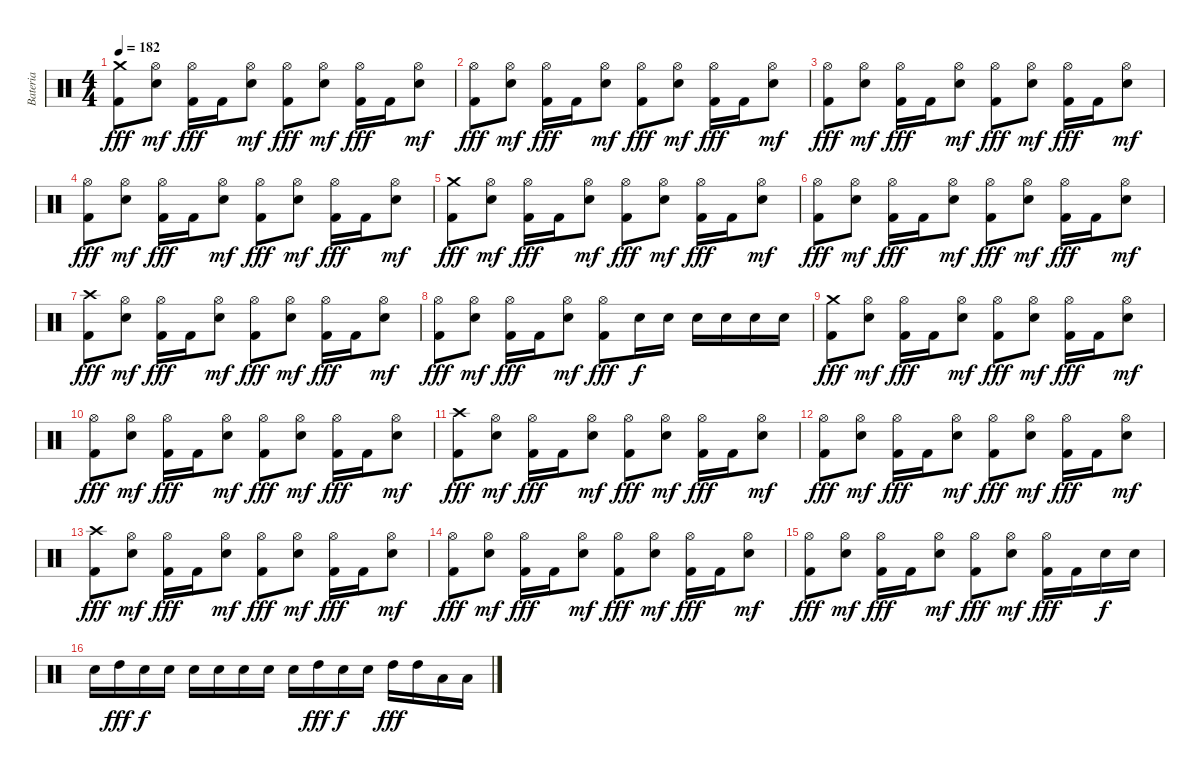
\track ("Bateria" "Bateria") {instrument percussion}
\staff {score}
\articulation defaults
\ts (4 4)
\tempo 182
\clef neutral
\ks c
("Crash medium (hit)" "Kick (hit) 2").8{dy fff} ("Hi-Hat (open)" "Electric Snare (hit)").8{dy mf} ("Hi-Hat (open)" "Kick (hit) 2").16{dy fff} "Kick (hit) 2".16 ("Hi-Hat (open)" "Electric Snare (hit)").8{dy mf} ("Hi-Hat (open)" "Kick (hit) 2").8{dy fff} ("Hi-Hat (open)" "Electric Snare (hit)").8{dy mf} ("Hi-Hat (open)" "Kick (hit) 2").16{dy fff} "Kick (hit) 2".16 ("Hi-Hat (open)" "Electric Snare (hit)").8{dy mf} |
("Hi-Hat (open)" "Kick (hit) 2").8{dy fff} ("Hi-Hat (open)" "Electric Snare (hit)").8{dy mf} ("Hi-Hat (open)" "Kick (hit) 2").16{dy fff} "Kick (hit) 2".16 ("Hi-Hat (open)" "Electric Snare (hit)").8{dy mf} ("Hi-Hat (open)" "Kick (hit) 2").8{dy fff} ("Hi-Hat (open)" "Electric Snare (hit)").8{dy mf} ("Hi-Hat (open)" "Kick (hit) 2").16{dy fff} "Kick (hit) 2".16 ("Hi-Hat (open)" "Electric Snare (hit)").8{dy mf} |
("Hi-Hat (open)" "Kick (hit) 2").8{dy fff} ("Hi-Hat (open)" "Electric Snare (hit)").8{dy mf} ("Hi-Hat (open)" "Kick (hit) 2").16{dy fff} "Kick (hit) 2".16 ("Hi-Hat (open)" "Electric Snare (hit)").8{dy mf} ("Hi-Hat (open)" "Kick (hit) 2").8{dy fff} ("Hi-Hat (open)" "Electric Snare (hit)").8{dy mf} ("Hi-Hat (open)" "Kick (hit) 2").16{dy fff} "Kick (hit) 2".16 ("Hi-Hat (open)" "Electric Snare (hit)").8{dy mf} |
("Hi-Hat (open)" "Kick (hit) 2").8{dy fff} ("Hi-Hat (open)" "Electric Snare (hit)").8{dy mf} ("Hi-Hat (open)" "Kick (hit) 2").16{dy fff} "Kick (hit) 2".16 ("Hi-Hat (open)" "Electric Snare (hit)").8{dy mf} ("Hi-Hat (open)" "Kick (hit) 2").8{dy fff} ("Hi-Hat (open)" "Electric Snare (hit)").8{dy mf} ("Hi-Hat (open)" "Kick (hit) 2").16{dy fff} "Kick (hit) 2".16 ("Hi-Hat (open)" "Electric Snare (hit)").8{dy mf} |
("Crash medium (hit)" "Kick (hit) 2").8{dy fff} ("Hi-Hat (open)" "Electric Snare (hit)").8{dy mf} ("Hi-Hat (open)" "Kick (hit) 2").16{dy fff} "Kick (hit) 2".16 ("Hi-Hat (open)" "Electric Snare (hit)").8{dy mf} ("Hi-Hat (open)" "Kick (hit) 2").8{dy fff} ("Hi-Hat (open)" "Electric Snare (hit)").8{dy mf} ("Hi-Hat (open)" "Kick (hit) 2").16{dy fff} "Kick (hit) 2".16 ("Hi-Hat (open)" "Electric Snare (hit)").8{dy mf} |
("Hi-Hat (open)" "Kick (hit) 2").8{dy fff} ("Hi-Hat (open)" "Electric Snare (hit)").8{dy mf} ("Hi-Hat (open)" "Kick (hit) 2").16{dy fff} "Kick (hit) 2".16 ("Hi-Hat (open)" "Electric Snare (hit)").8{dy mf} ("Hi-Hat (open)" "Kick (hit) 2").8{dy fff} ("Hi-Hat (open)" "Electric Snare (hit)").8{dy mf} ("Hi-Hat (open)" "Kick (hit) 2").16{dy fff} "Kick (hit) 2".16 ("Hi-Hat (open)" "Electric Snare (hit)").8{dy mf} |
("Crash high (hit)" "Kick (hit) 2").8{dy fff} ("Hi-Hat (open)" "Electric Snare (hit)").8{dy mf} ("Hi-Hat (open)" "Kick (hit) 2").16{dy fff} "Kick (hit) 2".16 ("Hi-Hat (open)" "Electric Snare (hit)").8{dy mf} ("Hi-Hat (open)" "Kick (hit) 2").8{dy fff} ("Hi-Hat (open)" "Electric Snare (hit)").8{dy mf} ("Hi-Hat (open)" "Kick (hit) 2").16{dy fff} "Kick (hit) 2".16 ("Hi-Hat (open)" "Electric Snare (hit)").8{dy mf} |
("Hi-Hat (open)" "Kick (hit) 2").8{dy fff} ("Hi-Hat (open)" "Electric Snare (hit)").8{dy mf} ("Hi-Hat (open)" "Kick (hit) 2").16{dy fff} "Kick (hit) 2".16 ("Hi-Hat (open)" "Electric Snare (hit)").8{dy mf} ("Hi-Hat (open)" "Kick (hit) 2").8{dy fff} "Electric Snare (hit)".16{dy f} "Electric Snare (hit)".16 "Electric Snare (hit)".16 "Electric Snare (hit)".16 "Electric Snare (hit)".16 "Electric Snare (hit)".16 |
("Crash medium (hit)" "Kick (hit) 2").8{dy fff} ("Hi-Hat (open)" "Electric Snare (hit)").8{dy mf} ("Hi-Hat (open)" "Kick (hit) 2").16{dy fff} "Kick (hit) 2".16 ("Hi-Hat (open)" "Electric Snare (hit)").8{dy mf} ("Hi-Hat (open)" "Kick (hit) 2").8{dy fff} ("Hi-Hat (open)" "Electric Snare (hit)").8{dy mf} ("Hi-Hat (open)" "Kick (hit) 2").16{dy fff} "Kick (hit) 2".16 ("Hi-Hat (open)" "Electric Snare (hit)").8{dy mf} |
("Hi-Hat (open)" "Kick (hit) 2").8{dy fff} ("Hi-Hat (open)" "Electric Snare (hit)").8{dy mf} ("Hi-Hat (open)" "Kick (hit) 2").16{dy fff} "Kick (hit) 2".16 ("Hi-Hat (open)" "Electric Snare (hit)").8{dy mf} ("Hi-Hat (open)" "Kick (hit) 2").8{dy fff} ("Hi-Hat (open)" "Electric Snare (hit)").8{dy mf} ("Hi-Hat (open)" "Kick (hit) 2").16{dy fff} "Kick (hit) 2".16 ("Hi-Hat (open)" "Electric Snare (hit)").8{dy mf} |
("Crash high (hit)" "Kick (hit) 2").8{dy fff} ("Hi-Hat (open)" "Electric Snare (hit)").8{dy mf} ("Hi-Hat (open)" "Kick (hit) 2").16{dy fff} "Kick (hit) 2".16 ("Hi-Hat (open)" "Electric Snare (hit)").8{dy mf} ("Hi-Hat (open)" "Kick (hit) 2").8{dy fff} ("Hi-Hat (open)" "Electric Snare (hit)").8{dy mf} ("Hi-Hat (open)" "Kick (hit) 2").16{dy fff} "Kick (hit) 2".16 ("Hi-Hat (open)" "Electric Snare (hit)").8{dy mf} |
("Hi-Hat (open)" "Kick (hit) 2").8{dy fff} ("Hi-Hat (open)" "Electric Snare (hit)").8{dy mf} ("Hi-Hat (open)" "Kick (hit) 2").16{dy fff} "Kick (hit) 2".16 ("Hi-Hat (open)" "Electric Snare (hit)").8{dy mf} ("Hi-Hat (open)" "Kick (hit) 2").8{dy fff} ("Hi-Hat (open)" "Electric Snare (hit)").8{dy mf} ("Hi-Hat (open)" "Kick (hit) 2").16{dy fff} "Kick (hit) 2".16 ("Hi-Hat (open)" "Electric Snare (hit)").8{dy mf} |
("Crash high (hit)" "Kick (hit) 2").8{dy fff} ("Hi-Hat (open)" "Electric Snare (hit)").8{dy mf} ("Hi-Hat (open)" "Kick (hit) 2").16{dy fff} "Kick (hit) 2".16 ("Hi-Hat (open)" "Electric Snare (hit)").8{dy mf} ("Hi-Hat (open)" "Kick (hit) 2").8{dy fff} ("Hi-Hat (open)" "Electric Snare (hit)").8{dy mf} ("Hi-Hat (open)" "Kick (hit) 2").16{dy fff} "Kick (hit) 2".16 ("Hi-Hat (open)" "Electric Snare (hit)").8{dy mf} |
("Hi-Hat (open)" "Kick (hit) 2").8{dy fff} ("Hi-Hat (open)" "Electric Snare (hit)").8{dy mf} ("Hi-Hat (open)" "Kick (hit) 2").16{dy fff} "Kick (hit) 2".16 ("Hi-Hat (open)" "Electric Snare (hit)").8{dy mf} ("Hi-Hat (open)" "Kick (hit) 2").8{dy fff} ("Hi-Hat (open)" "Electric Snare (hit)").8{dy mf} ("Hi-Hat (open)" "Kick (hit) 2").16{dy fff} "Kick (hit) 2".16 ("Hi-Hat (open)" "Electric Snare (hit)").8{dy mf} |
("Hi-Hat (open)" "Kick (hit) 2").8{dy fff} ("Hi-Hat (open)" "Electric Snare (hit)").8{dy mf} ("Hi-Hat (open)" "Kick (hit) 2").16{dy fff} "Kick (hit) 2".16 ("Hi-Hat (open)" "Electric Snare (hit)").8{dy mf} ("Hi-Hat (open)" "Kick (hit) 2").8{dy fff} ("Hi-Hat (open)" "Electric Snare (hit)").8{dy mf} ("Hi-Hat (open)" "Kick (hit) 2").16{dy fff} "Kick (hit) 2".16 "Electric Snare (hit)".16{dy f} "Electric Snare (hit)".16 |
"Electric Snare (hit)".16 "High Tom (hit)".16{dy fff} "Electric Snare (hit)".16{dy f} "Electric Snare (hit)".16 "Electric Snare (hit)".16 "Electric Snare (hit)".16 "Electric Snare (hit)".16 "Electric Snare (hit)".16 "Electric Snare (hit)".16 "High Tom (hit)".16{dy fff} "Electric Snare (hit)".16{dy f} "Electric Snare (hit)".16 "High Tom (hit)".16{dy fff} "High Tom (hit)".16 "Low Tom (hit)".16 "Low Tom (hit)".16
